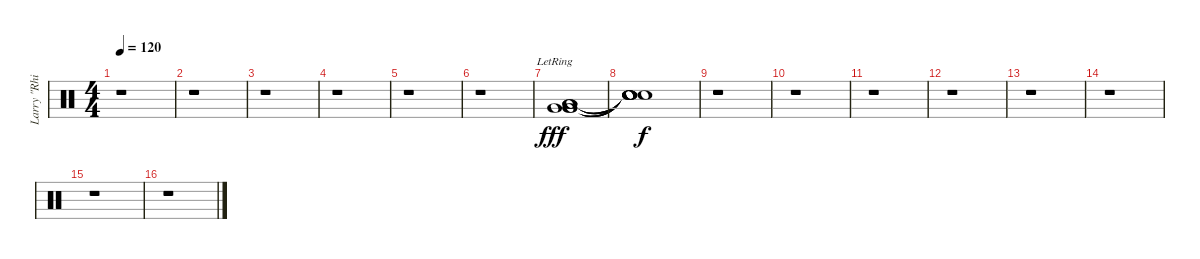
\track ("Larry \"Rhino\" Rheinhart" "Larry \"Rhi") {instrument percussion}
\staff {score}
\articulation defaults
\ts (4 4)
\tempo 120
\clef neutral
\ks c
r.1{dy f} |
r.1 |
r.1 |
r.1 |
r.1 |
r.1 |
("Very Low Tom (hit)"{lr} "Very Low Tom (hit)" "Very Low Tom (hit)" "Low Floor Tom (hit)" "Low Floor Tom (hit)" "Low Floor Tom (hit)").1{dy fff volume 16 balance 13} |
("Snare (hit)"{t} "Snare (hit)"{t} "Snare (hit)"{t} "Snare (hit)"{t} "Snare (hit)"{t} "Snare (hit)"{t}).1{dy f} |
r.1 |
r.1 |
r.1 |
r.1 |
r.1 |
r.1 |
r.1 |
r.1
